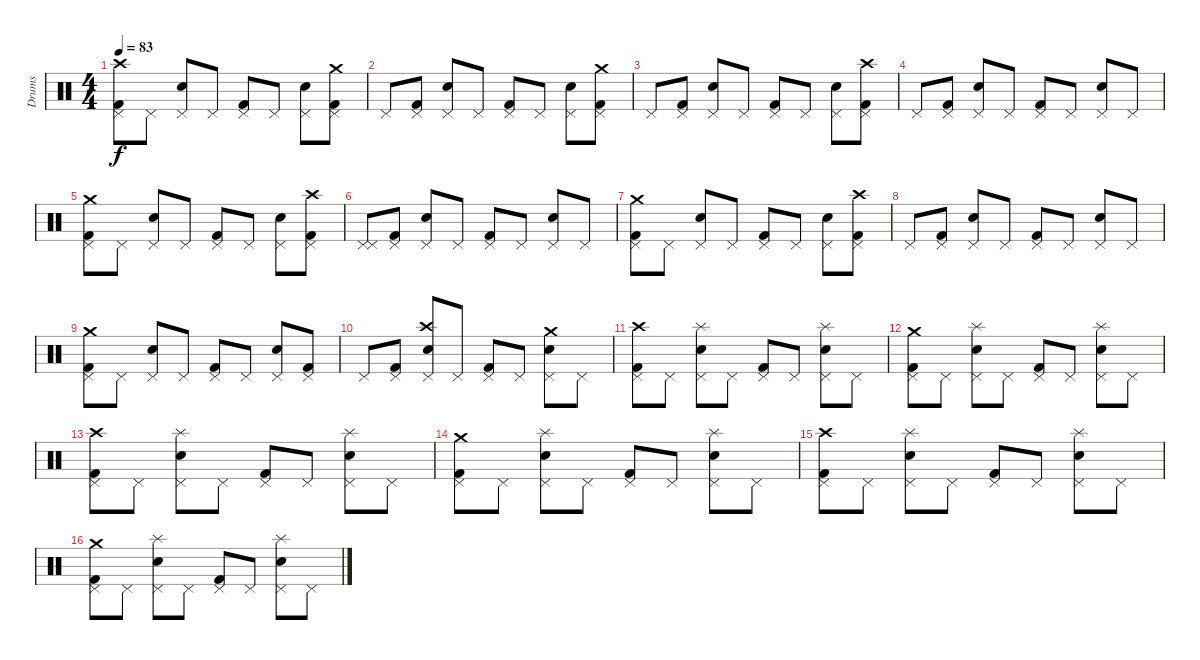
\track ("Drums" "Drums") {instrument percussion}
\staff {score}
\articulation defaults
\ts (4 4)
\tempo 83
\clef neutral
\ks c
("Pedal Hi-Hat (hit)" "Kick (hit) 2" "Crash high (hit)").8{dy f} "Pedal Hi-Hat (hit)".8 ("Pedal Hi-Hat (hit)" "Snare (hit) 2").8 "Pedal Hi-Hat (hit)".8 ("Pedal Hi-Hat (hit)" "Kick (hit) 2").8 "Pedal Hi-Hat (hit)".8 ("Pedal Hi-Hat (hit)" "Snare (hit) 2").8 ("Pedal Hi-Hat (hit)" "Kick (hit) 2" "Crash medium (hit)").8 |
"Pedal Hi-Hat (hit)".8 ("Pedal Hi-Hat (hit)" "Kick (hit) 2").8 ("Pedal Hi-Hat (hit)" "Snare (hit) 2").8 "Pedal Hi-Hat (hit)".8 ("Pedal Hi-Hat (hit)" "Kick (hit) 2").8 "Pedal Hi-Hat (hit)".8 ("Pedal Hi-Hat (hit)" "Snare (hit) 2").8 ("Crash medium (hit)" "Kick (hit) 2" "Pedal Hi-Hat (hit)").8 |
"Pedal Hi-Hat (hit)".8 ("Pedal Hi-Hat (hit)" "Kick (hit) 2").8 ("Pedal Hi-Hat (hit)" "Snare (hit) 2").8 "Pedal Hi-Hat (hit)".8 ("Pedal Hi-Hat (hit)" "Kick (hit) 2").8 "Pedal Hi-Hat (hit)".8 ("Pedal Hi-Hat (hit)" "Snare (hit) 2").8 ("Crash high (hit)" "Pedal Hi-Hat (hit)" "Kick (hit) 2").8 |
"Pedal Hi-Hat (hit)".8 ("Pedal Hi-Hat (hit)" "Kick (hit) 2").8 ("Pedal Hi-Hat (hit)" "Snare (hit) 2").8 "Pedal Hi-Hat (hit)".8 ("Pedal Hi-Hat (hit)" "Kick (hit) 2").8 "Pedal Hi-Hat (hit)".8 ("Pedal Hi-Hat (hit)" "Snare (hit) 2").8 "Pedal Hi-Hat (hit)".8 |
("Crash medium (hit)" "Pedal Hi-Hat (hit)" "Kick (hit) 2").8 "Pedal Hi-Hat (hit)".8 ("Pedal Hi-Hat (hit)" "Snare (hit) 2").8 "Pedal Hi-Hat (hit)".8 ("Kick (hit) 2" "Pedal Hi-Hat (hit)").8 "Pedal Hi-Hat (hit)".8 ("Pedal Hi-Hat (hit)" "Snare (hit) 2").8 ("Pedal Hi-Hat (hit)" "Kick (hit) 2" "Crash high (hit)").8 |
("Pedal Hi-Hat (hit)" "Pedal Hi-Hat (hit)").8 ("Pedal Hi-Hat (hit)" "Kick (hit) 2").8 ("Pedal Hi-Hat (hit)" "Snare (hit) 2").8 "Pedal Hi-Hat (hit)".8 ("Pedal Hi-Hat (hit)" "Kick (hit) 2").8 "Pedal Hi-Hat (hit)".8 ("Pedal Hi-Hat (hit)" "Snare (hit) 2").8 "Pedal Hi-Hat (hit)".8 |
("Crash medium (hit)" "Pedal Hi-Hat (hit)" "Kick (hit) 2").8 "Pedal Hi-Hat (hit)".8 ("Pedal Hi-Hat (hit)" "Snare (hit) 2").8 "Pedal Hi-Hat (hit)".8 ("Pedal Hi-Hat (hit)" "Kick (hit) 2").8 "Pedal Hi-Hat (hit)".8 ("Pedal Hi-Hat (hit)" "Snare (hit) 2").8 ("Crash high (hit)" "Pedal Hi-Hat (hit)" "Kick (hit) 2").8 |
"Pedal Hi-Hat (hit)".8 ("Pedal Hi-Hat (hit)" "Kick (hit) 2").8 ("Pedal Hi-Hat (hit)" "Snare (hit) 2").8 "Pedal Hi-Hat (hit)".8 ("Pedal Hi-Hat (hit)" "Kick (hit) 2").8 "Pedal Hi-Hat (hit)".8 ("Pedal Hi-Hat (hit)" "Snare (hit) 2").8 "Pedal Hi-Hat (hit)".8 |
("Crash medium (hit)" "Pedal Hi-Hat (hit)" "Kick (hit) 2").8 "Pedal Hi-Hat (hit)".8 ("Pedal Hi-Hat (hit)" "Snare (hit) 2").8 "Pedal Hi-Hat (hit)".8 ("Pedal Hi-Hat (hit)" "Kick (hit) 2").8 "Pedal Hi-Hat (hit)".8 ("Pedal Hi-Hat (hit)" "Snare (hit) 2").8 ("Pedal Hi-Hat (hit)" "Kick (hit) 2").8 |
"Pedal Hi-Hat (hit)".8 ("Pedal Hi-Hat (hit)" "Kick (hit) 2").8 ("Pedal Hi-Hat (hit)" "Crash high (hit)" "Snare (hit) 2").8 "Pedal Hi-Hat (hit)".8 ("Pedal Hi-Hat (hit)" "Kick (hit) 2").8 "Pedal Hi-Hat (hit)".8 ("Pedal Hi-Hat (hit)" "Crash medium (hit)" "Snare (hit) 2").8 "Pedal Hi-Hat (hit)".8 |
("Pedal Hi-Hat (hit)" "Crash high (hit)" "Kick (hit) 2").8 "Pedal Hi-Hat (hit)".8 ("Pedal Hi-Hat (hit)" "Splash (hit)" "Snare (hit) 2").8 "Pedal Hi-Hat (hit)".8 ("Pedal Hi-Hat (hit)" "Kick (hit) 2").8 "Pedal Hi-Hat (hit)".8 ("Pedal Hi-Hat (hit)" "Snare (hit) 2" "Splash (hit)").8 "Pedal Hi-Hat (hit)".8 |
("Pedal Hi-Hat (hit)" "Crash medium (hit)" "Kick (hit) 2").8 "Pedal Hi-Hat (hit)".8 ("Pedal Hi-Hat (hit)" "Splash (hit)" "Snare (hit) 2").8 "Pedal Hi-Hat (hit)".8 ("Pedal Hi-Hat (hit)" "Kick (hit) 2").8 "Pedal Hi-Hat (hit)".8 ("Pedal Hi-Hat (hit)" "Splash (hit)" "Snare (hit) 2").8 "Pedal Hi-Hat (hit)".8 |
("Pedal Hi-Hat (hit)" "Crash high (hit)" "Kick (hit) 2").8 "Pedal Hi-Hat (hit)".8 ("Pedal Hi-Hat (hit)" "Splash (hit)" "Snare (hit) 2").8 "Pedal Hi-Hat (hit)".8 ("Pedal Hi-Hat (hit)" "Kick (hit) 2").8 "Pedal Hi-Hat (hit)".8 ("Pedal Hi-Hat (hit)" "Splash (hit)" "Snare (hit) 2").8 "Pedal Hi-Hat (hit)".8 |
("Pedal Hi-Hat (hit)" "Crash medium (hit)" "Kick (hit) 2").8 "Pedal Hi-Hat (hit)".8 ("Pedal Hi-Hat (hit)" "Splash (hit)" "Snare (hit) 2").8 "Pedal Hi-Hat (hit)".8 ("Pedal Hi-Hat (hit)" "Kick (hit) 2").8 "Pedal Hi-Hat (hit)".8 ("Pedal Hi-Hat (hit)" "Splash (hit)" "Snare (hit) 2").8 "Pedal Hi-Hat (hit)".8 |
("Pedal Hi-Hat (hit)" "Kick (hit) 2" "Crash high (hit)").8 "Pedal Hi-Hat (hit)".8 ("Pedal Hi-Hat (hit)" "Splash (hit)" "Snare (hit) 2").8 "Pedal Hi-Hat (hit)".8 ("Pedal Hi-Hat (hit)" "Kick (hit) 2").8 "Pedal Hi-Hat (hit)".8 ("Pedal Hi-Hat (hit)" "Splash (hit)" "Snare (hit) 2").8 "Pedal Hi-Hat (hit)".8 |
("Pedal Hi-Hat (hit)" "Crash medium (hit)" "Kick (hit) 2").8 "Pedal Hi-Hat (hit)".8 ("Pedal Hi-Hat (hit)" "Splash (hit)" "Snare (hit) 2").8 "Pedal Hi-Hat (hit)".8 ("Pedal Hi-Hat (hit)" "Kick (hit) 2").8 "Pedal Hi-Hat (hit)".8 ("Pedal Hi-Hat (hit)" "Snare (hit) 2" "Splash (hit)").8 "Pedal Hi-Hat (hit)".8
